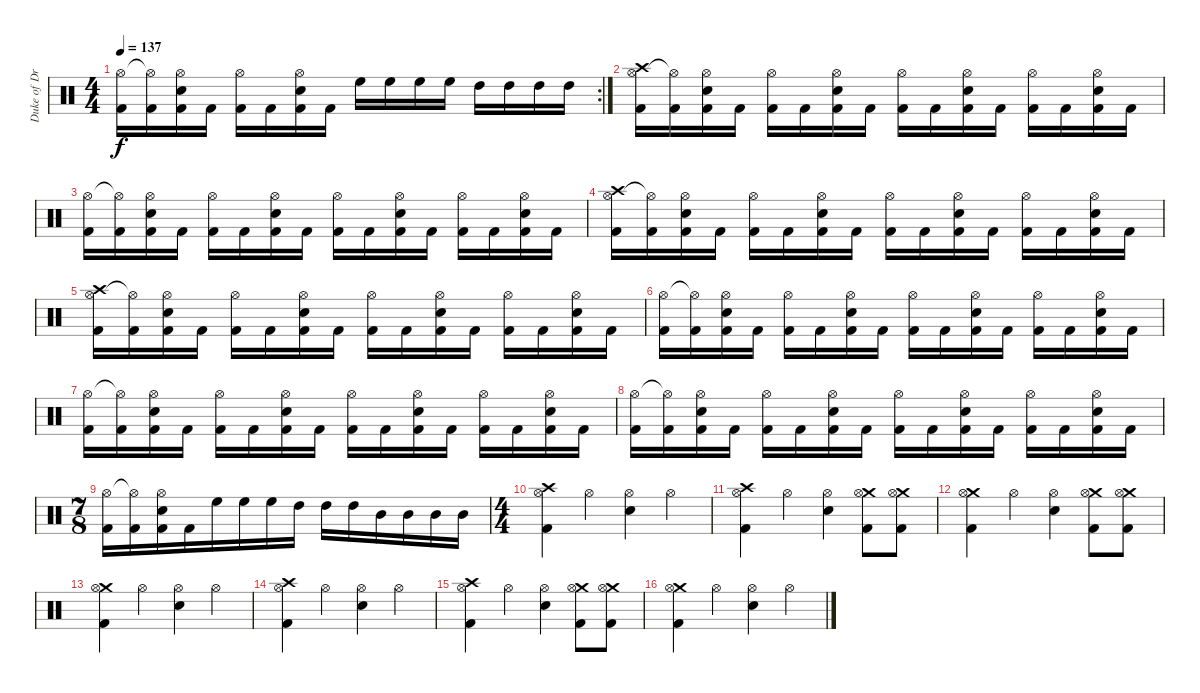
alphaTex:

\track ("Duke of Drumington" "Duke of Dr") {instrument percussion}
\staff {score}
\articulation defaults
\rc 2
\ts (4 4)
\tempo 137
\clef neutral
\ks c
("Hi-Hat (open)" "Kick (hit) 2").16{dy f} ("Hi-Hat (open)"{t} "Kick (hit) 2").16 ("Hi-Hat (open)" "Snare (hit) 2" "Kick (hit) 2").16 "Kick (hit) 2".16 ("Hi-Hat (open)" "Kick (hit) 2").16 "Kick (hit) 2".16 ("Hi-Hat (open)" "Snare (hit) 2" "Kick (hit) 2").16 "Kick (hit) 2".16 "High Floor Tom (hit)".16 "High Floor Tom (hit)".16 "High Floor Tom (hit)".16 "High Floor Tom (hit)".16 "High Tom (hit)".16 "High Tom (hit)".16 "High Tom (hit)".16 "High Tom (hit)".16 |
("Hi-Hat (open)" "Crash high (hit)" "Kick (hit) 2").16 ("Hi-Hat (open)"{t} "Kick (hit) 2").16 ("Hi-Hat (open)" "Snare (hit) 2" "Kick (hit) 2").16 "Kick (hit) 2".16 ("Hi-Hat (open)" "Kick (hit) 2").16 "Kick (hit) 2".16 ("Hi-Hat (open)" "Snare (hit) 2" "Kick (hit) 2").16 "Kick (hit) 2".16 ("Hi-Hat (open)" "Kick (hit) 2").16 "Kick (hit) 2".16 ("Hi-Hat (open)" "Snare (hit) 2" "Kick (hit) 2").16 "Kick (hit) 2".16 ("Hi-Hat (open)" "Kick (hit) 2").16 "Kick (hit) 2".16 ("Hi-Hat (open)" "Snare (hit) 2" "Kick (hit) 2").16 "Kick (hit) 2".16 |
("Hi-Hat (open)" "Kick (hit) 2").16 ("Hi-Hat (open)"{t} "Kick (hit) 2").16 ("Hi-Hat (open)" "Snare (hit) 2" "Kick (hit) 2").16 "Kick (hit) 2".16 ("Hi-Hat (open)" "Kick (hit) 2").16 "Kick (hit) 2".16 ("Hi-Hat (open)" "Snare (hit) 2" "Kick (hit) 2").16 "Kick (hit) 2".16 ("Hi-Hat (open)" "Kick (hit) 2").16 "Kick (hit) 2".16 ("Hi-Hat (open)" "Snare (hit) 2" "Kick (hit) 2").16 "Kick (hit) 2".16 ("Hi-Hat (open)" "Kick (hit) 2").16 "Kick (hit) 2".16 ("Hi-Hat (open)" "Snare (hit) 2" "Kick (hit) 2").16 "Kick (hit) 2".16 |
("Hi-Hat (open)" "Crash high (hit)" "Kick (hit) 2").16 ("Hi-Hat (open)"{t} "Kick (hit) 2").16 ("Hi-Hat (open)" "Snare (hit) 2" "Kick (hit) 2").16 "Kick (hit) 2".16 ("Hi-Hat (open)" "Kick (hit) 2").16 "Kick (hit) 2".16 ("Hi-Hat (open)" "Snare (hit) 2" "Kick (hit) 2").16 "Kick (hit) 2".16 ("Hi-Hat (open)" "Kick (hit) 2").16 "Kick (hit) 2".16 ("Hi-Hat (open)" "Snare (hit) 2" "Kick (hit) 2").16 "Kick (hit) 2".16 ("Hi-Hat (open)" "Kick (hit) 2").16 "Kick (hit) 2".16 ("Hi-Hat (open)" "Snare (hit) 2" "Kick (hit) 2").16 "Kick (hit) 2".16 |
("Hi-Hat (open)" "Crash high (hit)" "Kick (hit) 2").16 ("Hi-Hat (open)"{t} "Kick (hit) 2").16 ("Hi-Hat (open)" "Snare (hit) 2" "Kick (hit) 2").16 "Kick (hit) 2".16 ("Hi-Hat (open)" "Kick (hit) 2").16 "Kick (hit) 2".16 ("Hi-Hat (open)" "Snare (hit) 2" "Kick (hit) 2").16 "Kick (hit) 2".16 ("Hi-Hat (open)" "Kick (hit) 2").16 "Kick (hit) 2".16 ("Hi-Hat (open)" "Snare (hit) 2" "Kick (hit) 2").16 "Kick (hit) 2".16 ("Hi-Hat (open)" "Kick (hit) 2").16 "Kick (hit) 2".16 ("Hi-Hat (open)" "Snare (hit) 2" "Kick (hit) 2").16 "Kick (hit) 2".16 |
("Hi-Hat (open)" "Kick (hit) 2").16 ("Hi-Hat (open)"{t} "Kick (hit) 2").16 ("Hi-Hat (open)" "Snare (hit) 2" "Kick (hit) 2").16 "Kick (hit) 2".16 ("Hi-Hat (open)" "Kick (hit) 2").16 "Kick (hit) 2".16 ("Hi-Hat (open)" "Snare (hit) 2" "Kick (hit) 2").16 "Kick (hit) 2".16 ("Hi-Hat (open)" "Kick (hit) 2").16 "Kick (hit) 2".16 ("Hi-Hat (open)" "Snare (hit) 2" "Kick (hit) 2").16 "Kick (hit) 2".16 ("Hi-Hat (open)" "Kick (hit) 2").16 "Kick (hit) 2".16 ("Hi-Hat (open)" "Snare (hit) 2" "Kick (hit) 2").16 "Kick (hit) 2".16 |
("Hi-Hat (open)" "Kick (hit) 2").16 ("Hi-Hat (open)"{t} "Kick (hit) 2").16 ("Hi-Hat (open)" "Snare (hit) 2" "Kick (hit) 2").16 "Kick (hit) 2".16 ("Hi-Hat (open)" "Kick (hit) 2").16 "Kick (hit) 2".16 ("Hi-Hat (open)" "Snare (hit) 2" "Kick (hit) 2").16 "Kick (hit) 2".16 ("Hi-Hat (open)" "Kick (hit) 2").16 "Kick (hit) 2".16 ("Hi-Hat (open)" "Snare (hit) 2" "Kick (hit) 2").16 "Kick (hit) 2".16 ("Hi-Hat (open)" "Kick (hit) 2").16 "Kick (hit) 2".16 ("Hi-Hat (open)" "Snare (hit) 2" "Kick (hit) 2").16 "Kick (hit) 2".16 |
("Hi-Hat (open)" "Kick (hit) 2").16 ("Hi-Hat (open)"{t} "Kick (hit) 2").16 ("Hi-Hat (open)" "Snare (hit) 2" "Kick (hit) 2").16 "Kick (hit) 2".16 ("Hi-Hat (open)" "Kick (hit) 2").16 "Kick (hit) 2".16 ("Hi-Hat (open)" "Snare (hit) 2" "Kick (hit) 2").16 "Kick (hit) 2".16 ("Hi-Hat (open)" "Kick (hit) 2").16 "Kick (hit) 2".16 ("Hi-Hat (open)" "Snare (hit) 2" "Kick (hit) 2").16 "Kick (hit) 2".16 ("Hi-Hat (open)" "Kick (hit) 2").16 "Kick (hit) 2".16 ("Hi-Hat (open)" "Snare (hit) 2" "Kick (hit) 2").16 "Kick (hit) 2".16 |
\ts (7 8)
("Hi-Hat (open)" "Kick (hit) 2").16 ("Hi-Hat (open)"{t} "Kick (hit) 2").16 ("Hi-Hat (open)" "Snare (hit) 2" "Kick (hit) 2").16 "Kick (hit) 2".16 "High Floor Tom (hit)".16 "High Floor Tom (hit)".16 "High Floor Tom (hit)".16 "High Tom (hit)".16 "High Tom (hit)".16 "High Tom (hit)".16 "Mid Tom (hit)".16 "Mid Tom (hit)".16 "Mid Tom (hit)".16 "Mid Tom (hit)".16 |
\ts (4 4)
("Crash high (hit)" "Hi-Hat (open)" "Kick (hit) 2").4 "Hi-Hat (open)".4 ("Hi-Hat (open)" "Snare (hit) 2").4 "Hi-Hat (open)".4 |
("Crash high (hit)" "Hi-Hat (open)" "Kick (hit) 2").4 "Hi-Hat (open)".4 ("Hi-Hat (open)" "Snare (hit) 2").4 ("Crash medium (hit)" "Hi-Hat (open)" "Kick (hit) 2").8 ("Crash medium (hit)" "Hi-Hat (open)" "Kick (hit) 2").8 |
("Crash medium (hit)" "Hi-Hat (open)" "Kick (hit) 2").4 "Hi-Hat (open)".4 ("Hi-Hat (open)" "Snare (hit) 2").4 ("Crash medium (hit)" "Hi-Hat (open)" "Kick (hit) 2").8 ("Crash medium (hit)" "Hi-Hat (open)" "Kick (hit) 2").8 |
("Crash medium (hit)" "Hi-Hat (open)" "Kick (hit) 2").4 "Hi-Hat (open)".4 ("Hi-Hat (open)" "Snare (hit) 2").4 "Hi-Hat (open)".4 |
("Crash high (hit)" "Hi-Hat (open)" "Kick (hit) 2").4 "Hi-Hat (open)".4 ("Hi-Hat (open)" "Snare (hit) 2").4 "Hi-Hat (open)".4 |
("Crash high (hit)" "Hi-Hat (open)" "Kick (hit) 2").4 "Hi-Hat (open)".4 ("Hi-Hat (open)" "Snare (hit) 2").4 ("Crash medium (hit)" "Hi-Hat (open)" "Kick (hit) 2").8 ("Crash medium (hit)" "Hi-Hat (open)" "Kick (hit) 2").8 |
("Crash medium (hit)" "Hi-Hat (open)" "Kick (hit) 2").4 "Hi-Hat (open)".4 ("Hi-Hat (open)" "Snare (hit) 2").4 "Hi-Hat (open)".4
